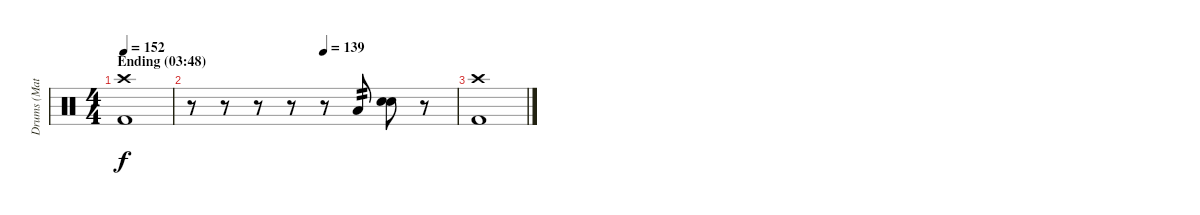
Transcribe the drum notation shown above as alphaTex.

\track ("Drums (Matt Sorum)" "Drums (Mat") {instrument percussion}
\staff {score}
\articulation defaults
\ts (4 4)
\section ("" "Ending (03:48)")
\tempo 152
\clef neutral
\ks c
("Crash high (hit)" "Kick (hit) 2").1{dy f} |
\tempo (139 0.5)
r.8 r.8 r.8 r.8 r.8 "Low Floor Tom (hit)".8{tp 2} ("Electric Snare (hit)" "Electric Snare (hit)").8{bd 480} r.8 |
("Crash high (hit)" "Kick (hit) 2").1
